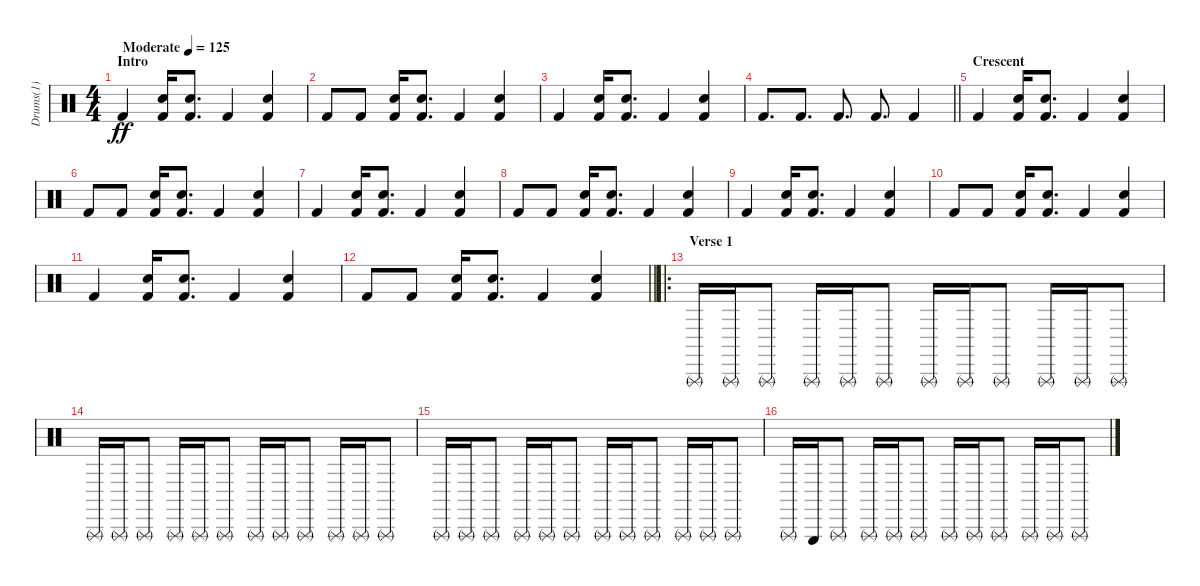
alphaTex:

\track ("Drums(1)" "Drums(1)") {instrument percussion}
\staff {score}
\articulation defaults
\ts (4 4)
\section ("" "Intro")
\tempo (125 "Moderate")
\clef neutral
\ks c "Kick (hit) 2".4{dy ff}
("Snare (hit) 2" "Kick (hit) 2").16 ("Electric Snare (hit)" "Kick (hit) 2").8{d} "Kick (hit) 2".4 ("Electric Snare (hit)" "Kick (hit) 2").4 |
"Kick (hit) 2".8 "Kick (hit) 2".8 ("Snare (hit) 2" "Kick (hit) 2").16 ("Electric Snare (hit)" "Kick (hit) 2").8{d} "Kick (hit) 2".4 ("Electric Snare (hit)" "Kick (hit) 2").4 |
"Kick (hit) 2".4 ("Snare (hit) 2" "Kick (hit) 2").16 ("Electric Snare (hit)" "Kick (hit) 2").8{d} "Kick (hit) 2".4 ("Electric Snare (hit)" "Kick (hit) 2").4 |
\barLineRight lightlight "Kick (hit) 2".8{d} "Kick (hit) 2".8{d} "Kick (hit) 2".8{d} "Kick (hit) 2".8{d} "Kick (hit) 2".4
|
\section ("" "Crescent")
"Kick (hit) 2".4 ("Snare (hit) 2" "Kick (hit) 2").16 ("Electric Snare (hit)" "Kick (hit) 2").8{d} "Kick (hit) 2".4 ("Electric Snare (hit)" "Kick (hit) 2").4 |
"Kick (hit) 2".8 "Kick (hit) 2".8 ("Snare (hit) 2" "Kick (hit) 2").16 ("Electric Snare (hit)" "Kick (hit) 2").8{d} "Kick (hit) 2".4 ("Electric Snare (hit)" "Kick (hit) 2").4 |
"Kick (hit) 2".4 ("Snare (hit) 2" "Kick (hit) 2").16 ("Electric Snare (hit)" "Kick (hit) 2").8{d} "Kick (hit) 2".4 ("Electric Snare (hit)" "Kick (hit) 2").4 |
"Kick (hit) 2".8 "Kick (hit) 2".8 ("Snare (hit) 2" "Kick (hit) 2").16 ("Electric Snare (hit)" "Kick (hit) 2").8{d} "Kick (hit) 2".4 ("Electric Snare (hit)" "Kick (hit) 2").4 |
"Kick (hit) 2".4 ("Snare (hit) 2" "Kick (hit) 2").16 ("Electric Snare (hit)" "Kick (hit) 2").8{d} "Kick (hit) 2".4 ("Electric Snare (hit)" "Kick (hit) 2").4 |
"Kick (hit) 2".8 "Kick (hit) 2".8 ("Snare (hit) 2" "Kick (hit) 2").16 ("Electric Snare (hit)" "Kick (hit) 2").8{d} "Kick (hit) 2".4 ("Electric Snare (hit)" "Kick (hit) 2").4 |
"Kick (hit) 2".4 ("Snare (hit) 2" "Kick (hit) 2").16 ("Electric Snare (hit)" "Kick (hit) 2").8{d} "Kick (hit) 2".4 ("Electric Snare (hit)" "Kick (hit) 2").4 |
\barLineRight lightlight "Kick (hit) 2".8 "Kick (hit) 2".8
("Snare (hit) 2" "Kick (hit) 2").16 ("Electric Snare (hit)" "Kick (hit) 2").8{d} "Kick (hit) 2".4 ("Electric Snare (hit)" "Kick (hit) 2").4 |
\ro
\section ("" "Verse 1")
"Triangle (rnute)".16 "Triangle (rnute)".16 "Triangle (rnute)".8 "Triangle (rnute)".16 "Triangle (rnute)".16 "Triangle (rnute)".8 "Triangle (rnute)".16 "Triangle (rnute)".16 "Triangle (rnute)".8 "Triangle (rnute)".16 "Triangle (rnute)".16 "Triangle (rnute)".8 |
"Triangle (rnute)".16 "Triangle (rnute)".16 "Triangle (rnute)".8 "Triangle (rnute)".16 "Triangle (rnute)".16 "Triangle (rnute)".8 "Triangle (rnute)".16 "Triangle (rnute)".16 "Triangle (rnute)".8 "Triangle (rnute)".16 "Triangle (rnute)".16 "Triangle (rnute)".8 |
"Triangle (rnute)".16 "Triangle (rnute)".16 "Triangle (rnute)".8 "Triangle (rnute)".16 "Triangle (rnute)".16 "Triangle (rnute)".8 "Triangle (rnute)".16 "Triangle (rnute)".16 "Triangle (rnute)".8 "Triangle (rnute)".16 "Triangle (rnute)".16 "Triangle (rnute)".8 |
"Triangle (rnute)".16 "Triangle (hit)".16 "Triangle (rnute)".8 "Triangle (rnute)".16 "Triangle (rnute)".16 "Triangle (rnute)".8 "Triangle (rnute)".16 "Triangle (rnute)".16 "Triangle (rnute)".8 "Triangle (rnute)".16 "Triangle (rnute)".16 "Triangle (rnute)".8
